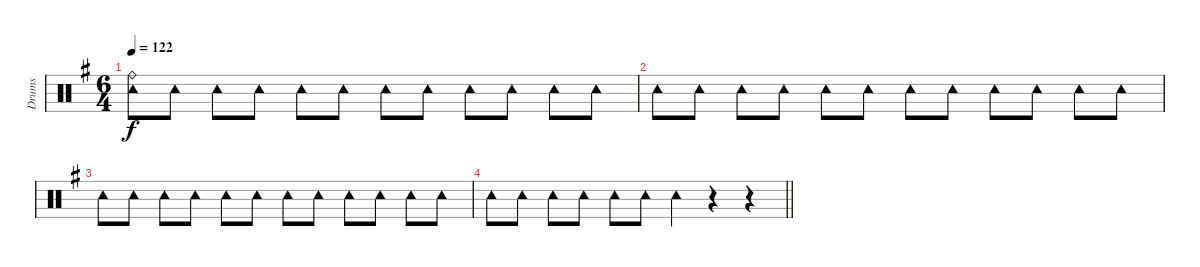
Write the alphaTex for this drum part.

\track ("Drums" "Drums") {instrument percussion}
\staff {score}
\articulation defaults
\ts (6 4)
\tempo 122
\clef neutral
\ks g
("Ride (bell)" "Tambourine (hit)").8{dy f} "Tambourine (hit)".8 "Tambourine (hit)".8 "Tambourine (hit)".8 "Tambourine (hit)".8 "Tambourine (hit)".8 "Tambourine (hit)".8 "Tambourine (hit)".8 "Tambourine (hit)".8 "Tambourine (hit)".8 "Tambourine (hit)".8 "Tambourine (hit)".8 |
"Tambourine (hit)".8 "Tambourine (hit)".8 "Tambourine (hit)".8 "Tambourine (hit)".8 "Tambourine (hit)".8 "Tambourine (hit)".8 "Tambourine (hit)".8 "Tambourine (hit)".8 "Tambourine (hit)".8 "Tambourine (hit)".8 "Tambourine (hit)".8 "Tambourine (hit)".8 |
"Tambourine (hit)".8 "Tambourine (hit)".8 "Tambourine (hit)".8 "Tambourine (hit)".8 "Tambourine (hit)".8 "Tambourine (hit)".8 "Tambourine (hit)".8 "Tambourine (hit)".8 "Tambourine (hit)".8 "Tambourine (hit)".8 "Tambourine (hit)".8 "Tambourine (hit)".8 |
\barLineRight lightlight "Tambourine (hit)".8 "Tambourine (hit)".8 "Tambourine (hit)".8 "Tambourine (hit)".8 "Tambourine (hit)".8 "Tambourine (hit)".8 "Tambourine (hit)".4
r.4 r.4
